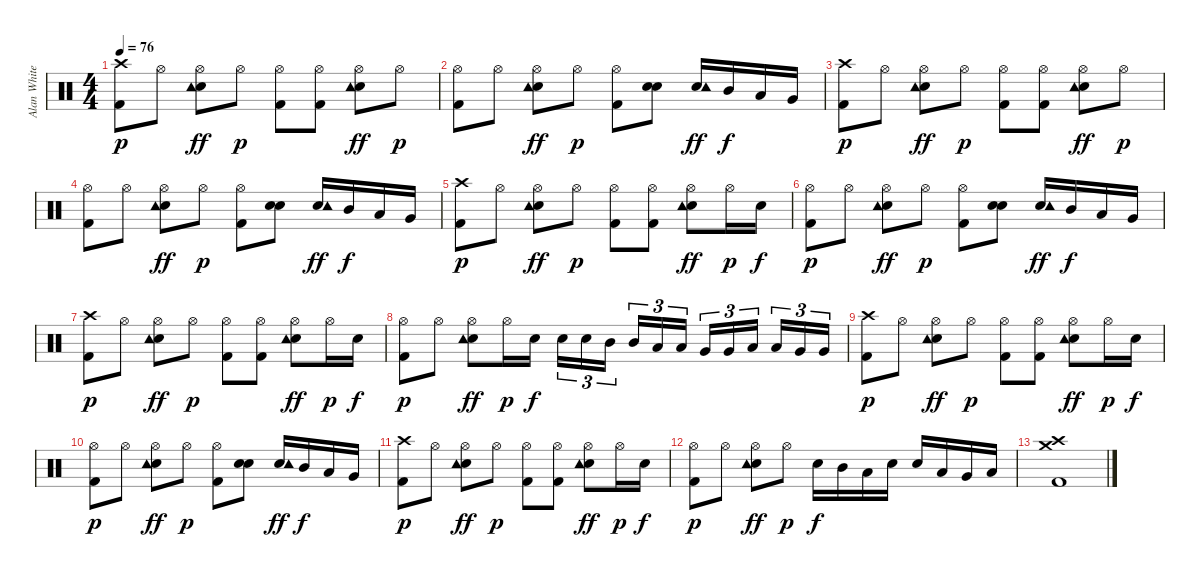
\track ("Alan White" "Alan White") {instrument percussion}
\staff {score}
\articulation defaults
\ts (4 4)
\tempo 76
\clef neutral
\ks c
("Crash high (hit)" "Kick (hit) 2").8{dy p} "Hi-Hat (open)".8 ("Hi-Hat (open)" "Snare (hit) 2" "Tambourine (hit)").8{dy ff} "Hi-Hat (open)".8{dy p} ("Hi-Hat (open)" "Kick (hit) 2").8 ("Hi-Hat (open)" "Kick (hit) 2").8 ("Hi-Hat (open)" "Snare (hit) 2" "Tambourine (hit)").8{dy ff} "Hi-Hat (open)".8{dy p} |
("Hi-Hat (open)" "Kick (hit) 2").8 "Hi-Hat (open)".8 ("Hi-Hat (open)" "Snare (hit) 2" "Tambourine (hit)").8{dy ff} "Hi-Hat (open)".8{dy p} ("Hi-Hat (open)" "Kick (hit) 2").8 ("Snare (hit) 2" "Snare (hit) 2").8 ("Snare (hit) 2" "Tambourine (hit)").16{dy ff} "Mid Tom (hit)".16{dy f} "Low Tom (hit)".16 "Very Low Tom (hit)".16 |
("Crash high (hit)" "Kick (hit) 2").8{dy p} "Hi-Hat (open)".8 ("Hi-Hat (open)" "Snare (hit) 2" "Tambourine (hit)").8{dy ff} "Hi-Hat (open)".8{dy p} ("Hi-Hat (open)" "Kick (hit) 2").8 ("Hi-Hat (open)" "Kick (hit) 2").8 ("Hi-Hat (open)" "Snare (hit) 2" "Tambourine (hit)").8{dy ff} "Hi-Hat (open)".8{dy p} |
("Hi-Hat (open)" "Kick (hit) 2").8 "Hi-Hat (open)".8 ("Hi-Hat (open)" "Snare (hit) 2" "Tambourine (hit)").8{dy ff} "Hi-Hat (open)".8{dy p} ("Hi-Hat (open)" "Kick (hit) 2").8 ("Snare (hit) 2" "Snare (hit) 2").8 ("Snare (hit) 2" "Tambourine (hit)").16{dy ff} "Mid Tom (hit)".16{dy f} "Low Tom (hit)".16 "Very Low Tom (hit)".16 |
("Crash high (hit)" "Kick (hit) 2").8{dy p} "Hi-Hat (open)".8 ("Hi-Hat (open)" "Snare (hit) 2" "Tambourine (hit)").8{dy ff} "Hi-Hat (open)".8{dy p} ("Hi-Hat (open)" "Kick (hit) 2").8 ("Hi-Hat (open)" "Kick (hit) 2").8 ("Hi-Hat (open)" "Snare (hit) 2" "Tambourine (hit)").8{dy ff} "Hi-Hat (open)".16{dy p} "Snare (hit) 2".16{dy f} |
("Hi-Hat (open)" "Kick (hit) 2").8{dy p} "Hi-Hat (open)".8 ("Hi-Hat (open)" "Snare (hit) 2" "Tambourine (hit)").8{dy ff} "Hi-Hat (open)".8{dy p} ("Hi-Hat (open)" "Kick (hit) 2").8 ("Snare (hit) 2" "Snare (hit) 2").8 ("Snare (hit) 2" "Tambourine (hit)").16{dy ff} "Mid Tom (hit)".16{dy f} "Low Tom (hit)".16 "Very Low Tom (hit)".16 |
("Crash high (hit)" "Kick (hit) 2").8{dy p} "Hi-Hat (open)".8 ("Hi-Hat (open)" "Snare (hit) 2" "Tambourine (hit)").8{dy ff} "Hi-Hat (open)".8{dy p} ("Hi-Hat (open)" "Kick (hit) 2").8 ("Hi-Hat (open)" "Kick (hit) 2").8 ("Hi-Hat (open)" "Snare (hit) 2" "Tambourine (hit)").8{dy ff} "Hi-Hat (open)".16{dy p} "Snare (hit) 2".16{dy f} |
("Hi-Hat (open)" "Kick (hit) 2").8{dy p} "Hi-Hat (open)".8 ("Hi-Hat (open)" "Snare (hit) 2" "Tambourine (hit)").8{dy ff} "Hi-Hat (open)".16{dy p} "Snare (hit) 2".16{dy f} "Snare (hit) 2".16{tu (3 2)} "Snare (hit) 2".16{tu (3 2)} "Mid Tom (hit)".16{tu (3 2)} "Mid Tom (hit)".16{tu (3 2)} "Low Tom (hit)".16{tu (3 2)} "Low Tom (hit)".16{tu (3 2)} "Very Low Tom (hit)".16{tu (3 2)} "Very Low Tom (hit)".16{tu (3 2)} "Low Floor Tom (hit)".16{tu (3 2)} "Low Floor Tom (hit)".16{tu (3 2)} "Very Low Tom (hit)".16{tu (3 2)} "Very Low Tom (hit)".16{tu (3 2)} |
("Crash high (hit)" "Kick (hit) 2").8{dy p} "Hi-Hat (open)".8 ("Hi-Hat (open)" "Snare (hit) 2" "Tambourine (hit)").8{dy ff} "Hi-Hat (open)".8{dy p} ("Hi-Hat (open)" "Kick (hit) 2").8 ("Hi-Hat (open)" "Kick (hit) 2").8 ("Hi-Hat (open)" "Snare (hit) 2" "Tambourine (hit)").8{dy ff} "Hi-Hat (open)".16{dy p} "Snare (hit) 2".16{dy f} |
("Hi-Hat (open)" "Kick (hit) 2").8{dy p} "Hi-Hat (open)".8 ("Hi-Hat (open)" "Snare (hit) 2" "Tambourine (hit)").8{dy ff} "Hi-Hat (open)".8{dy p} ("Hi-Hat (open)" "Kick (hit) 2").8 ("Snare (hit) 2" "Snare (hit) 2").8 ("Snare (hit) 2" "Tambourine (hit)").16{dy ff} "Mid Tom (hit)".16{dy f} "Low Tom (hit)".16 "Very Low Tom (hit)".16 |
("Crash high (hit)" "Kick (hit) 2").8{dy p} "Hi-Hat (open)".8 ("Hi-Hat (open)" "Snare (hit) 2" "Tambourine (hit)").8{dy ff} "Hi-Hat (open)".8{dy p} ("Hi-Hat (open)" "Kick (hit) 2").8 ("Hi-Hat (open)" "Kick (hit) 2").8 ("Hi-Hat (open)" "Snare (hit) 2" "Tambourine (hit)").8{dy ff} "Hi-Hat (open)".16{dy p} "Snare (hit) 2".16{dy f} |
("Hi-Hat (open)" "Kick (hit) 2").8{dy p} "Hi-Hat (open)".8 ("Hi-Hat (open)" "Snare (hit) 2" "Tambourine (hit)").8{dy ff} "Hi-Hat (open)".8{dy p} "Snare (hit) 2".16{dy f} "Mid Tom (hit)".16 "Low Tom (hit)".16 "Snare (hit) 2".16 "Snare (hit) 2".16 "Low Tom (hit)".16 "Very Low Tom (hit)".16 "Low Floor Tom (hit)".16 |
("Crash medium (hit)" "Crash high (hit)" "Kick (hit) 2").1
